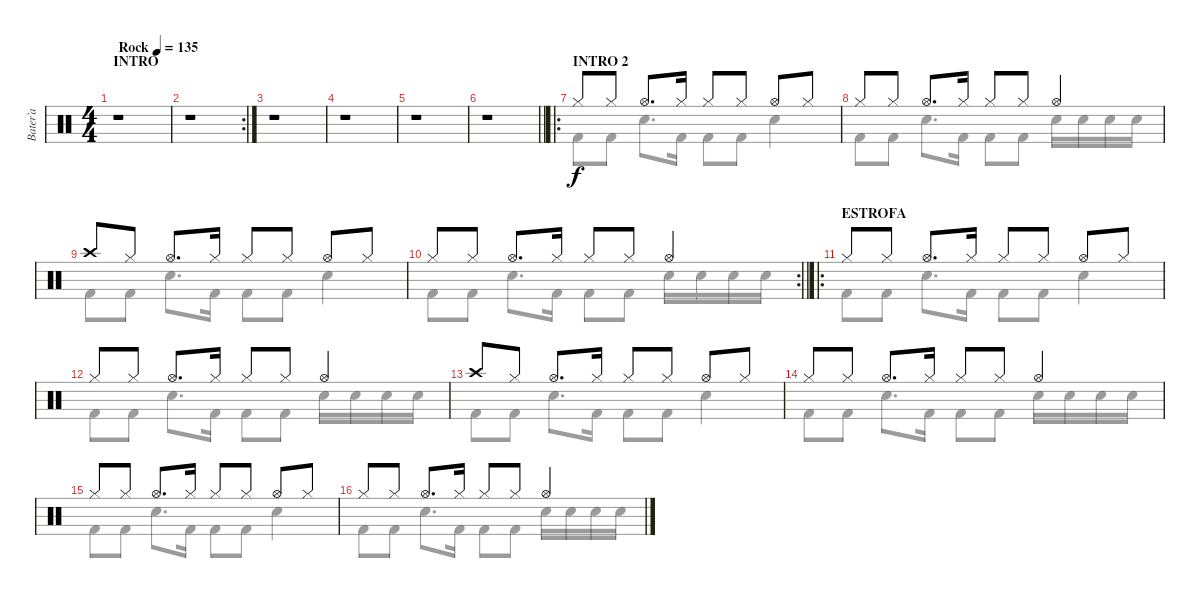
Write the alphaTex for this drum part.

\track ("Bater’a" "Bater’a") {instrument percussion}
\staff {score}
\articulation defaults
\voice
\ts (4 4)
\section ("" "INTRO")
\tempo (135 "Rock")
\clef neutral
\ks c
r.1{dy f} |
\rc 2
r.1 |
r.1 |
r.1 |
r.1 |
\barLineRight lightlight
r.1 |
\ro
\section ("" "INTRO 2")
"Hi-Hat (closed)".8 "Hi-Hat (closed)".8 "Hi-Hat (open)".8{d} "Hi-Hat (closed)".16 "Hi-Hat (closed)".8 "Hi-Hat (closed)".8 "Hi-Hat (open)".8 "Hi-Hat (closed)".8 |
"Hi-Hat (closed)".8 "Hi-Hat (closed)".8 "Hi-Hat (open)".8{d} "Hi-Hat (closed)".16 "Hi-Hat (closed)".8 "Hi-Hat (closed)".8 "Hi-Hat (open)".4 |
"Crash high (hit)".8 "Hi-Hat (closed)".8 "Hi-Hat (open)".8{d} "Hi-Hat (closed)".16 "Hi-Hat (closed)".8 "Hi-Hat (closed)".8 "Hi-Hat (open)".8 "Hi-Hat (closed)".8 |
\rc 2
\barLineRight lightlight "Hi-Hat (closed)".8 "Hi-Hat (closed)".8 "Hi-Hat (open)".8{d} "Hi-Hat (closed)".16 "Hi-Hat (closed)".8 "Hi-Hat (closed)".8 "Hi-Hat (open)".4
|
\ro
\section ("" "ESTROFA")
"Hi-Hat (closed)".8 "Hi-Hat (closed)".8 "Hi-Hat (open)".8{d} "Hi-Hat (closed)".16 "Hi-Hat (closed)".8 "Hi-Hat (closed)".8 "Hi-Hat (open)".8 "Hi-Hat (closed)".8 |
"Hi-Hat (closed)".8 "Hi-Hat (closed)".8 "Hi-Hat (open)".8{d} "Hi-Hat (closed)".16 "Hi-Hat (closed)".8 "Hi-Hat (closed)".8 "Hi-Hat (open)".4 |
"Crash high (hit)".8 "Hi-Hat (closed)".8 "Hi-Hat (open)".8{d} "Hi-Hat (closed)".16 "Hi-Hat (closed)".8 "Hi-Hat (closed)".8 "Hi-Hat (open)".8 "Hi-Hat (closed)".8 |
"Hi-Hat (closed)".8 "Hi-Hat (closed)".8 "Hi-Hat (open)".8{d} "Hi-Hat (closed)".16 "Hi-Hat (closed)".8 "Hi-Hat (closed)".8 "Hi-Hat (open)".4 |
"Hi-Hat (closed)".8 "Hi-Hat (closed)".8 "Hi-Hat (open)".8{d} "Hi-Hat (closed)".16 "Hi-Hat (closed)".8 "Hi-Hat (closed)".8 "Hi-Hat (open)".8 "Hi-Hat (closed)".8 |
"Hi-Hat (closed)".8 "Hi-Hat (closed)".8 "Hi-Hat (open)".8{d} "Hi-Hat (closed)".16 "Hi-Hat (closed)".8 "Hi-Hat (closed)".8 "Hi-Hat (open)".4
\voice
\clef neutral
\ottava regular
\simile none
\ks c
|
|
|
|
|
\barLineRight lightlight
|
"Kick (hit) 2".8 "Kick (hit) 2".8 "Snare (hit) 2".8{d} "Kick (hit) 2".16 "Kick (hit) 2".8 "Kick (hit) 2".8 "Snare (hit) 2".4 |
"Kick (hit) 2".8 "Kick (hit) 2".8 "Snare (hit) 2".8{d} "Kick (hit) 2".16 "Kick (hit) 2".8 "Kick (hit) 2".8 "Snare (hit) 2".16 "Snare (hit) 2".16 "Snare (hit) 2".16 "Snare (hit) 2".16 |
"Kick (hit) 2".8 "Kick (hit) 2".8 "Snare (hit) 2".8{d} "Kick (hit) 2".16 "Kick (hit) 2".8 "Kick (hit) 2".8 "Snare (hit) 2".4 |
\barLineRight lightlight "Kick (hit) 2".8 "Kick (hit) 2".8 "Snare (hit) 2".8{d} "Kick (hit) 2".16 "Kick (hit) 2".8 "Kick (hit) 2".8 "Snare (hit) 2".16 "Snare (hit) 2".16 "Snare (hit) 2".16 "Snare (hit) 2".16
|
"Kick (hit) 2".8 "Kick (hit) 2".8 "Snare (hit) 2".8{d} "Kick (hit) 2".16 "Kick (hit) 2".8 "Kick (hit) 2".8 "Snare (hit) 2".4 |
"Kick (hit) 2".8 "Kick (hit) 2".8 "Snare (hit) 2".8{d} "Kick (hit) 2".16 "Kick (hit) 2".8 "Kick (hit) 2".8 "Snare (hit) 2".16 "Snare (hit) 2".16 "Snare (hit) 2".16 "Snare (hit) 2".16 |
"Kick (hit) 2".8 "Kick (hit) 2".8 "Snare (hit) 2".8{d} "Kick (hit) 2".16 "Kick (hit) 2".8 "Kick (hit) 2".8 "Snare (hit) 2".4 |
"Kick (hit) 2".8 "Kick (hit) 2".8 "Snare (hit) 2".8{d} "Kick (hit) 2".16 "Kick (hit) 2".8 "Kick (hit) 2".8 "Snare (hit) 2".16 "Snare (hit) 2".16 "Snare (hit) 2".16 "Snare (hit) 2".16 |
"Kick (hit) 2".8 "Kick (hit) 2".8 "Snare (hit) 2".8{d} "Kick (hit) 2".16 "Kick (hit) 2".8 "Kick (hit) 2".8 "Snare (hit) 2".4 |
"Kick (hit) 2".8 "Kick (hit) 2".8 "Snare (hit) 2".8{d} "Kick (hit) 2".16 "Kick (hit) 2".8 "Kick (hit) 2".8 "Snare (hit) 2".16 "Snare (hit) 2".16 "Snare (hit) 2".16 "Snare (hit) 2".16
